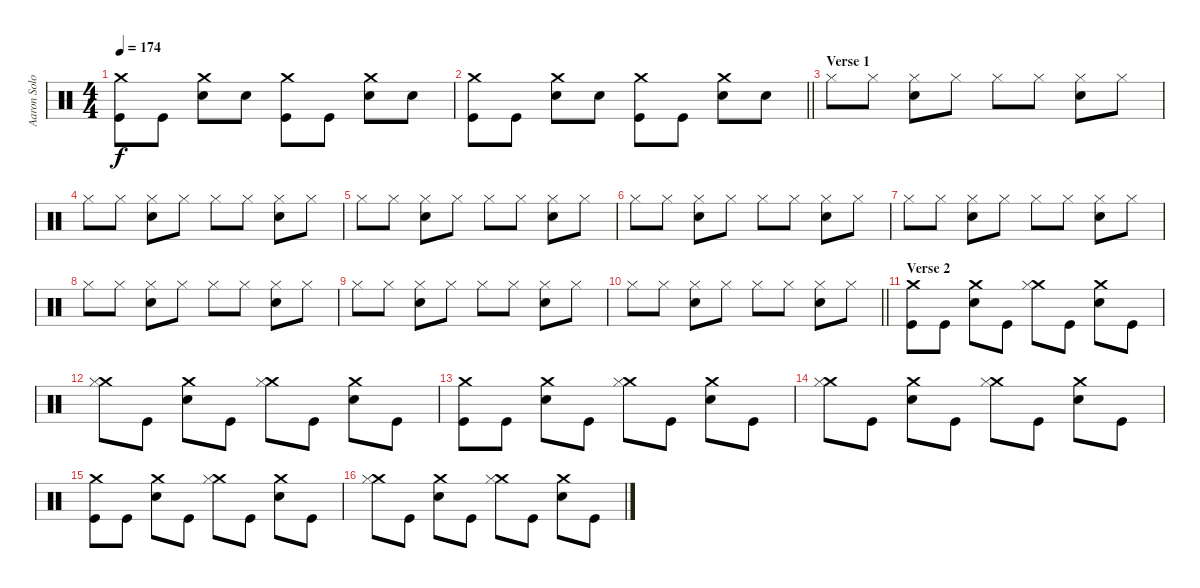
\track ("Aaron Solowoniuk" "Aaron Solo") {instrument percussion}
\staff {score}
\articulation defaults
\ts (4 4)
\tempo 174
\clef neutral
\ks c
("Kick (hit)" "Crash medium (hit)").8{dy f} "Kick (hit)".8 ("Snare (hit) 2" "Crash medium (hit)").8 "Snare (hit) 2".8 ("Kick (hit)" "Crash medium (hit)").8 "Kick (hit)".8 ("Snare (hit) 2" "Crash medium (hit)").8 "Snare (hit) 2".8 |
\barLineRight lightlight
("Kick (hit)" "Crash medium (hit)").8 "Kick (hit)".8 ("Snare (hit) 2" "Crash medium (hit)").8 "Snare (hit) 2".8 ("Kick (hit)" "Crash medium (hit)").8 "Kick (hit)".8 ("Snare (hit) 2" "Crash medium (hit)").8 "Snare (hit) 2".8 |
\section ("" "Verse 1")
"Hi-Hat (closed)".8 "Hi-Hat (closed)".8 ("Electric Snare (hit)" "Hi-Hat (closed)").8 "Hi-Hat (closed)".8 "Hi-Hat (closed)".8 "Hi-Hat (closed)".8 ("Electric Snare (hit)" "Hi-Hat (closed)").8 "Hi-Hat (closed)".8 |
"Hi-Hat (closed)".8 "Hi-Hat (closed)".8 ("Electric Snare (hit)" "Hi-Hat (closed)").8 "Hi-Hat (closed)".8 "Hi-Hat (closed)".8 "Hi-Hat (closed)".8 ("Electric Snare (hit)" "Hi-Hat (closed)").8 "Hi-Hat (closed)".8 |
"Hi-Hat (closed)".8 "Hi-Hat (closed)".8 ("Electric Snare (hit)" "Hi-Hat (closed)").8 "Hi-Hat (closed)".8 "Hi-Hat (closed)".8 "Hi-Hat (closed)".8 ("Electric Snare (hit)" "Hi-Hat (closed)").8 "Hi-Hat (closed)".8 |
"Hi-Hat (closed)".8 "Hi-Hat (closed)".8 ("Electric Snare (hit)" "Hi-Hat (closed)").8 "Hi-Hat (closed)".8 "Hi-Hat (closed)".8 "Hi-Hat (closed)".8 ("Electric Snare (hit)" "Hi-Hat (closed)").8 "Hi-Hat (closed)".8 |
"Hi-Hat (closed)".8 "Hi-Hat (closed)".8 ("Electric Snare (hit)" "Hi-Hat (closed)").8 "Hi-Hat (closed)".8 "Hi-Hat (closed)".8 "Hi-Hat (closed)".8 ("Electric Snare (hit)" "Hi-Hat (closed)").8 "Hi-Hat (closed)".8 |
"Hi-Hat (closed)".8 "Hi-Hat (closed)".8 ("Electric Snare (hit)" "Hi-Hat (closed)").8 "Hi-Hat (closed)".8 "Hi-Hat (closed)".8 "Hi-Hat (closed)".8 ("Electric Snare (hit)" "Hi-Hat (closed)").8 "Hi-Hat (closed)".8 |
"Hi-Hat (closed)".8 "Hi-Hat (closed)".8 ("Electric Snare (hit)" "Hi-Hat (closed)").8 "Hi-Hat (closed)".8 "Hi-Hat (closed)".8 "Hi-Hat (closed)".8 ("Electric Snare (hit)" "Hi-Hat (closed)").8 "Hi-Hat (closed)".8 |
\barLineRight lightlight "Hi-Hat (closed)".8 "Hi-Hat (closed)".8
("Electric Snare (hit)" "Hi-Hat (closed)").8 "Hi-Hat (closed)".8 "Hi-Hat (closed)".8 "Hi-Hat (closed)".8 ("Electric Snare (hit)" "Hi-Hat (closed)").8 "Hi-Hat (closed)".8 |
\section ("" "Verse 2")
("Kick (hit)" "Crash medium (hit)").8 "Kick (hit)".8 ("Crash medium (hit)" "Electric Snare (hit)").8 "Kick (hit)".8 ("Crash medium (hit)" "Hi-Hat (closed)").8 "Kick (hit)".8 ("Crash medium (hit)" "Electric Snare (hit)").8 "Kick (hit)".8 |
("Crash medium (hit)" "Hi-Hat (closed)").8 "Kick (hit)".8 ("Crash medium (hit)" "Electric Snare (hit)").8 "Kick (hit)".8 ("Crash medium (hit)" "Hi-Hat (closed)").8 "Kick (hit)".8 ("Crash medium (hit)" "Electric Snare (hit)").8 "Kick (hit)".8 |
("Kick (hit)" "Crash medium (hit)").8 "Kick (hit)".8 ("Crash medium (hit)" "Electric Snare (hit)").8 "Kick (hit)".8 ("Crash medium (hit)" "Hi-Hat (closed)").8 "Kick (hit)".8 ("Crash medium (hit)" "Electric Snare (hit)").8 "Kick (hit)".8 |
("Crash medium (hit)" "Hi-Hat (closed)").8 "Kick (hit)".8 ("Crash medium (hit)" "Electric Snare (hit)").8 "Kick (hit)".8 ("Crash medium (hit)" "Hi-Hat (closed)").8 "Kick (hit)".8 ("Crash medium (hit)" "Electric Snare (hit)").8 "Kick (hit)".8 |
("Kick (hit)" "Crash medium (hit)").8 "Kick (hit)".8 ("Crash medium (hit)" "Electric Snare (hit)").8 "Kick (hit)".8 ("Crash medium (hit)" "Hi-Hat (closed)").8 "Kick (hit)".8 ("Crash medium (hit)" "Electric Snare (hit)").8 "Kick (hit)".8 |
("Crash medium (hit)" "Hi-Hat (closed)").8 "Kick (hit)".8 ("Crash medium (hit)" "Electric Snare (hit)").8 "Kick (hit)".8 ("Crash medium (hit)" "Hi-Hat (closed)").8 "Kick (hit)".8 ("Crash medium (hit)" "Electric Snare (hit)").8 "Kick (hit)".8
